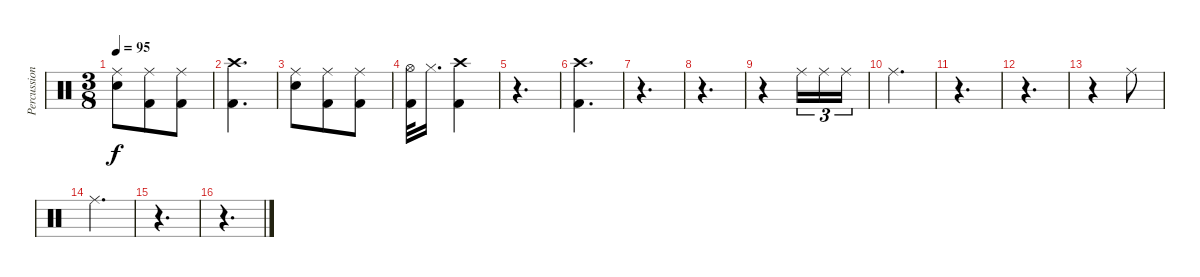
\track ("Percussion" "Percussion") {instrument percussion}
\staff {score}
\articulation defaults
\ts (3 8)
\tempo 95
\clef neutral
\ks c
("Ride (middle)" "Snare (hit) 2").8{dy f} ("Ride (middle)" "Kick (hit) 2").8 ("Ride (middle)" "Kick (hit) 2").8 |
("Crash high (hit)" "Kick (hit) 2").4{d} |
("Ride (middle)" "Snare (hit) 2").8 ("Ride (middle)" "Kick (hit) 2").8 ("Ride (middle)" "Kick (hit) 2").8 |
("Hi-Hat (open)" "Kick (hit) 2").32 "Hi-Hat (closed)".16{d} ("Crash high (hit)" "Kick (hit) 2").4 |
r.4{d} |
("Crash high (hit)" "Kick (hit) 2").4{d} |
r.4{d} |
r.4{d} |
r.4 "Ride (middle)".16{tu (3 2)} "Ride (middle)".16{tu (3 2)} "Ride (middle)".16{tu (3 2)} |
"Ride (middle)".4{d} |
r.4{d} |
r.4{d} |
r.4 "Ride (middle)".8 |
"Ride (middle)".4{d} |
r.4{d} |
r.4{d}
